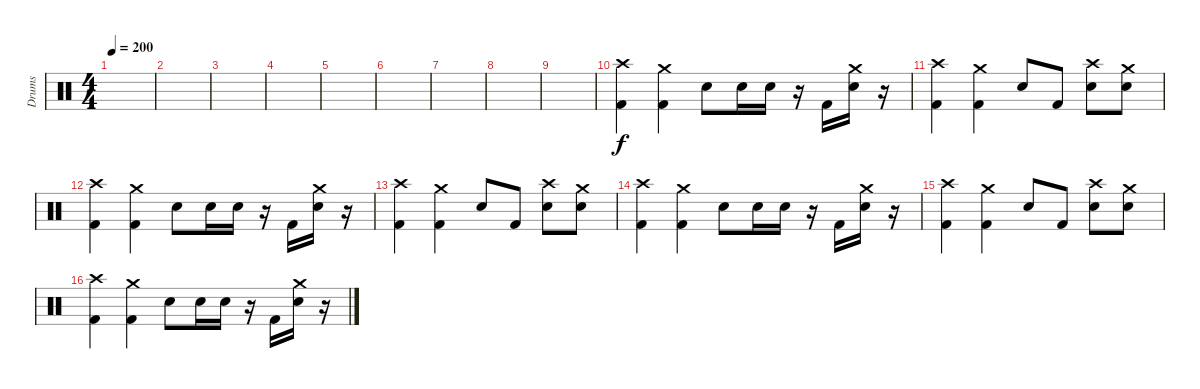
\track ("Drums" "Drums") {instrument percussion}
\staff {score}
\articulation defaults
\ts (4 4)
\tempo 200
\clef neutral
\ks c
|
|
|
|
|
|
|
|
|
("Crash high (hit)" "Kick (hit) 2").4 ("Crash medium (hit)" "Kick (hit) 2").4 "Electric Snare (hit)".8 "Electric Snare (hit)".16 "Electric Snare (hit)".16 r.16 "Kick (hit) 2".16 ("Electric Snare (hit)" "Crash medium (hit)").16 r.16 |
("Crash high (hit)" "Kick (hit) 2").4 ("Crash medium (hit)" "Kick (hit) 2").4 "Electric Snare (hit)".8 "Kick (hit) 2".8 ("Electric Snare (hit)" "Crash high (hit)").8 ("Electric Snare (hit)" "Crash medium (hit)").8 |
("Crash high (hit)" "Kick (hit) 2").4 ("Crash medium (hit)" "Kick (hit) 2").4 "Electric Snare (hit)".8 "Electric Snare (hit)".16 "Electric Snare (hit)".16 r.16 "Kick (hit) 2".16 ("Electric Snare (hit)" "Crash medium (hit)").16 r.16 |
("Crash high (hit)" "Kick (hit) 2").4 ("Crash medium (hit)" "Kick (hit) 2").4 "Electric Snare (hit)".8 "Kick (hit) 2".8 ("Electric Snare (hit)" "Crash high (hit)").8 ("Electric Snare (hit)" "Crash medium (hit)").8 |
("Crash high (hit)" "Kick (hit) 2").4 ("Crash medium (hit)" "Kick (hit) 2").4 "Electric Snare (hit)".8 "Electric Snare (hit)".16 "Electric Snare (hit)".16 r.16 "Kick (hit) 2".16 ("Electric Snare (hit)" "Crash medium (hit)").16 r.16 |
("Crash high (hit)" "Kick (hit) 2").4 ("Crash medium (hit)" "Kick (hit) 2").4 "Electric Snare (hit)".8 "Kick (hit) 2".8 ("Electric Snare (hit)" "Crash high (hit)").8 ("Electric Snare (hit)" "Crash medium (hit)").8 |
("Crash high (hit)" "Kick (hit) 2").4 ("Crash medium (hit)" "Kick (hit) 2").4 "Electric Snare (hit)".8 "Electric Snare (hit)".16 "Electric Snare (hit)".16 r.16 "Kick (hit) 2".16 ("Electric Snare (hit)" "Crash medium (hit)").16 r.16
